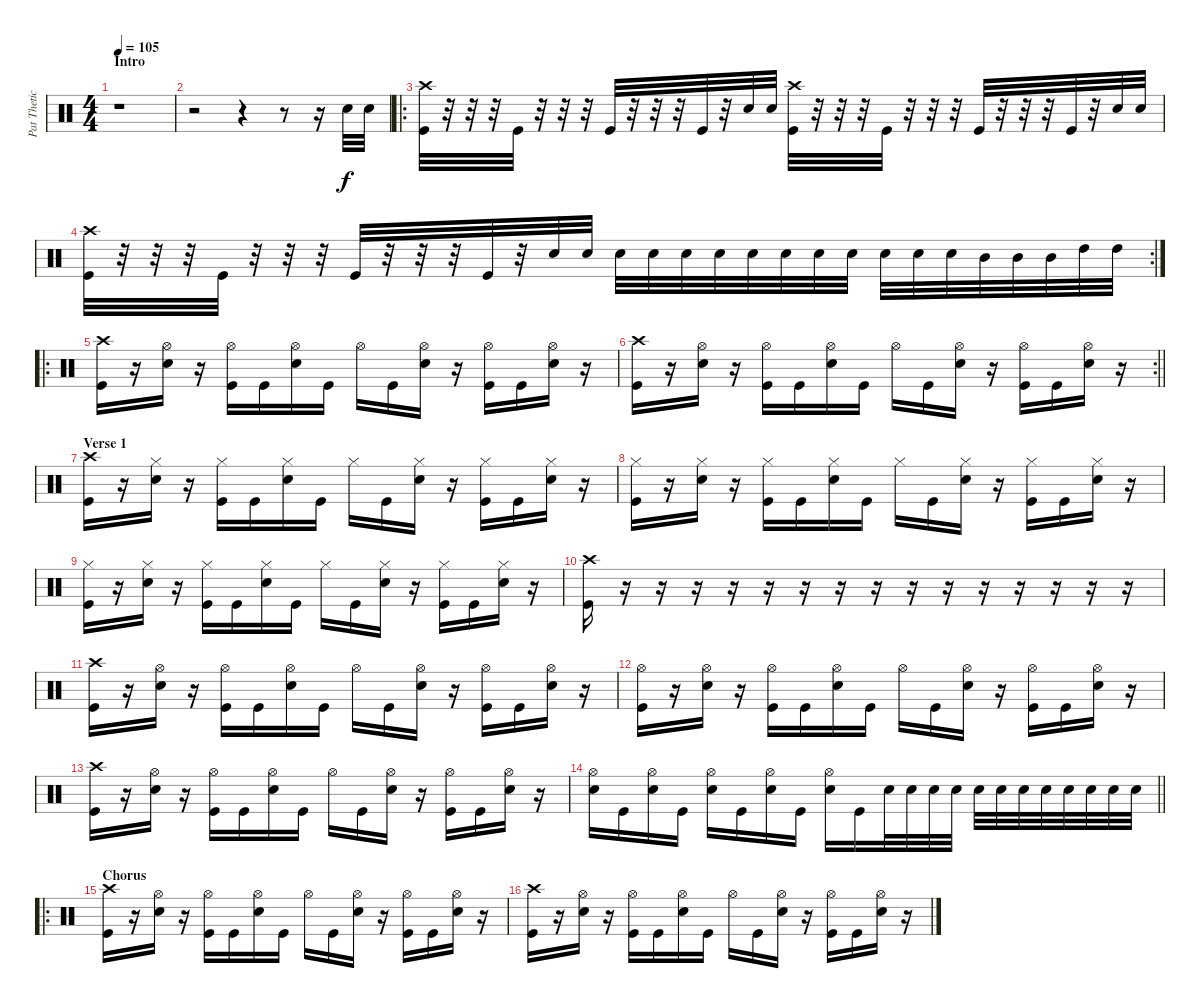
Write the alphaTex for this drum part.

\track ("Pat Thetic" "Pat Thetic") {instrument percussion}
\staff {score}
\articulation defaults
\ts (4 4)
\section ("" "Intro")
\tempo 105
\clef neutral
\ks c
r.1{dy f} |
r.2 r.4 r.8 r.16 "Snare (hit) 2".32 "Snare (hit) 2".32 |
\ro
("Crash high (hit)" "Kick (hit)").32 r.32 r.32 r.32 "Kick (hit)".32 r.32 r.32 r.32 "Kick (hit)".32 r.32 r.32 r.32 "Kick (hit)".32 r.32 "Snare (hit) 2".32 "Snare (hit) 2".32 ("Crash high (hit)" "Kick (hit)").32 r.32 r.32 r.32 "Kick (hit)".32 r.32 r.32 r.32 "Kick (hit)".32 r.32 r.32 r.32 "Kick (hit)".32 r.32 "Snare (hit) 2".32 "Snare (hit) 2".32 |
\rc 2
("Crash high (hit)" "Kick (hit)").32 r.32 r.32 r.32 "Kick (hit)".32 r.32 r.32 r.32 "Kick (hit)".32 r.32 r.32 r.32 "Kick (hit)".32 r.32 "Snare (hit) 2".32 "Snare (hit) 2".32 "Snare (hit) 2".32 "Snare (hit) 2".32 "Snare (hit) 2".32 "Snare (hit) 2".32 "Snare (hit) 2".32 "Snare (hit) 2".32 "Snare (hit) 2".32 "Snare (hit) 2".32 "Electric Snare (hit)".32 "Electric Snare (hit)".32 "Electric Snare (hit)".32 "Mid Tom (hit)".32 "Mid Tom (hit)".32 "Mid Tom (hit)".32 "High Tom (hit)".32 "High Tom (hit)".32 |
\ro
("Crash high (hit)" "Kick (hit)").16 r.16 ("Hi-Hat (open)" "Snare (hit) 2").16 r.16 ("Hi-Hat (open)" "Kick (hit)").16 "Kick (hit)".16 ("Hi-Hat (open)" "Snare (hit) 2").16 "Kick (hit)".16 "Hi-Hat (open)".16 "Kick (hit)".16 ("Hi-Hat (open)" "Snare (hit) 2").16 r.16 ("Hi-Hat (open)" "Kick (hit)").16 "Kick (hit)".16 ("Hi-Hat (open)" "Snare (hit) 2").16 r.16 |
\rc 2
\barLineRight lightlight
("Crash high (hit)" "Kick (hit)").16 r.16 ("Hi-Hat (open)" "Snare (hit) 2").16 r.16 ("Hi-Hat (open)" "Kick (hit)").16 "Kick (hit)".16 ("Hi-Hat (open)" "Snare (hit) 2").16 "Kick (hit)".16 "Hi-Hat (open)".16 "Kick (hit)".16 ("Hi-Hat (open)" "Snare (hit) 2").16 r.16 ("Hi-Hat (open)" "Kick (hit)").16 "Kick (hit)".16 ("Hi-Hat (open)" "Snare (hit) 2").16 r.16 |
\section ("" "Verse 1")
("Crash high (hit)" "Kick (hit)").16 r.16 ("Hi-Hat (closed)" "Snare (hit) 2").16 r.16 ("Hi-Hat (closed)" "Kick (hit)").16 "Kick (hit)".16 ("Hi-Hat (closed)" "Snare (hit) 2").16 "Kick (hit)".16 "Hi-Hat (closed)".16 "Kick (hit)".16 ("Hi-Hat (closed)" "Snare (hit) 2").16 r.16 ("Hi-Hat (closed)" "Kick (hit)").16 "Kick (hit)".16 ("Hi-Hat (closed)" "Snare (hit) 2").16 r.16 |
("Hi-Hat (closed)" "Kick (hit)").16 r.16 ("Hi-Hat (closed)" "Snare (hit) 2").16 r.16 ("Hi-Hat (closed)" "Kick (hit)").16 "Kick (hit)".16 ("Hi-Hat (closed)" "Snare (hit) 2").16 "Kick (hit)".16 "Hi-Hat (closed)".16 "Kick (hit)".16 ("Hi-Hat (closed)" "Snare (hit) 2").16 r.16 ("Hi-Hat (closed)" "Kick (hit)").16 "Kick (hit)".16 ("Hi-Hat (closed)" "Snare (hit) 2").16 r.16 |
("Hi-Hat (closed)" "Kick (hit)").16 r.16 ("Hi-Hat (closed)" "Snare (hit) 2").16 r.16 ("Hi-Hat (closed)" "Kick (hit)").16 "Kick (hit)".16 ("Hi-Hat (closed)" "Snare (hit) 2").16 "Kick (hit)".16 "Hi-Hat (closed)".16 "Kick (hit)".16 ("Hi-Hat (closed)" "Snare (hit) 2").16 r.16 ("Hi-Hat (closed)" "Kick (hit)").16 "Kick (hit)".16 ("Hi-Hat (closed)" "Snare (hit) 2").16 r.16 |
("Crash high (hit)" "Kick (hit)").16 r.16 r.16 r.16 r.16 r.16 r.16 r.16 r.16 r.16 r.16 r.16 r.16 r.16 r.16 r.16 |
("Crash high (hit)" "Kick (hit)").16 r.16 ("Hi-Hat (open)" "Snare (hit) 2").16 r.16 ("Hi-Hat (open)" "Kick (hit)").16 "Kick (hit)".16 ("Hi-Hat (open)" "Snare (hit) 2").16 "Kick (hit)".16 "Hi-Hat (open)".16 "Kick (hit)".16 ("Hi-Hat (open)" "Snare (hit) 2").16 r.16 ("Hi-Hat (open)" "Kick (hit)").16 "Kick (hit)".16 ("Hi-Hat (open)" "Snare (hit) 2").16 r.16 |
("Hi-Hat (open)" "Kick (hit)").16 r.16 ("Hi-Hat (open)" "Snare (hit) 2").16 r.16 ("Hi-Hat (open)" "Kick (hit)").16 "Kick (hit)".16 ("Hi-Hat (open)" "Snare (hit) 2").16 "Kick (hit)".16 "Hi-Hat (open)".16 "Kick (hit)".16 ("Hi-Hat (open)" "Snare (hit) 2").16 r.16 ("Hi-Hat (open)" "Kick (hit)").16 "Kick (hit)".16 ("Hi-Hat (open)" "Snare (hit) 2").16 r.16 |
("Crash high (hit)" "Kick (hit)").16 r.16 ("Hi-Hat (open)" "Snare (hit) 2").16 r.16 ("Hi-Hat (open)" "Kick (hit)").16 "Kick (hit)".16 ("Hi-Hat (open)" "Snare (hit) 2").16 "Kick (hit)".16 "Hi-Hat (open)".16 "Kick (hit)".16 ("Hi-Hat (open)" "Snare (hit) 2").16 r.16 ("Hi-Hat (open)" "Kick (hit)").16 "Kick (hit)".16 ("Hi-Hat (open)" "Snare (hit) 2").16 r.16 |
\barLineRight lightlight
("Snare (hit) 2" "Hi-Hat (open)").16 "Kick (hit)".16 ("Hi-Hat (open)" "Snare (hit) 2").16 "Kick (hit)".16 ("Hi-Hat (open)" "Snare (hit) 2").16 "Kick (hit)".16 ("Hi-Hat (open)" "Snare (hit) 2").16 "Kick (hit)".16 ("Hi-Hat (open)" "Snare (hit) 2").16 "Kick (hit)".16 "Snare (hit) 2".32 "Snare (hit) 2".32 "Snare (hit) 2".32 "Snare (hit) 2".32 "Snare (hit) 2".32 "Snare (hit) 2".32 "Snare (hit) 2".32 "Snare (hit) 2".32 "Snare (hit) 2".32 "Snare (hit) 2".32 "Snare (hit) 2".32 "Snare (hit) 2".32 |
\ro
\section ("" "Chorus")
("Crash high (hit)" "Kick (hit)").16 r.16 ("Hi-Hat (open)" "Snare (hit) 2").16 r.16 ("Hi-Hat (open)" "Kick (hit)").16 "Kick (hit)".16 ("Hi-Hat (open)" "Snare (hit) 2").16 "Kick (hit)".16 "Hi-Hat (open)".16 "Kick (hit)".16 ("Hi-Hat (open)" "Snare (hit) 2").16 r.16 ("Hi-Hat (open)" "Kick (hit)").16 "Kick (hit)".16 ("Hi-Hat (open)" "Snare (hit) 2").16 r.16 |
("Crash high (hit)" "Kick (hit)").16 r.16 ("Hi-Hat (open)" "Snare (hit) 2").16 r.16 ("Hi-Hat (open)" "Kick (hit)").16 "Kick (hit)".16 ("Hi-Hat (open)" "Snare (hit) 2").16 "Kick (hit)".16 "Hi-Hat (open)".16 "Kick (hit)".16 ("Hi-Hat (open)" "Snare (hit) 2").16 r.16 ("Hi-Hat (open)" "Kick (hit)").16 "Kick (hit)".16 ("Hi-Hat (open)" "Snare (hit) 2").16 r.16
